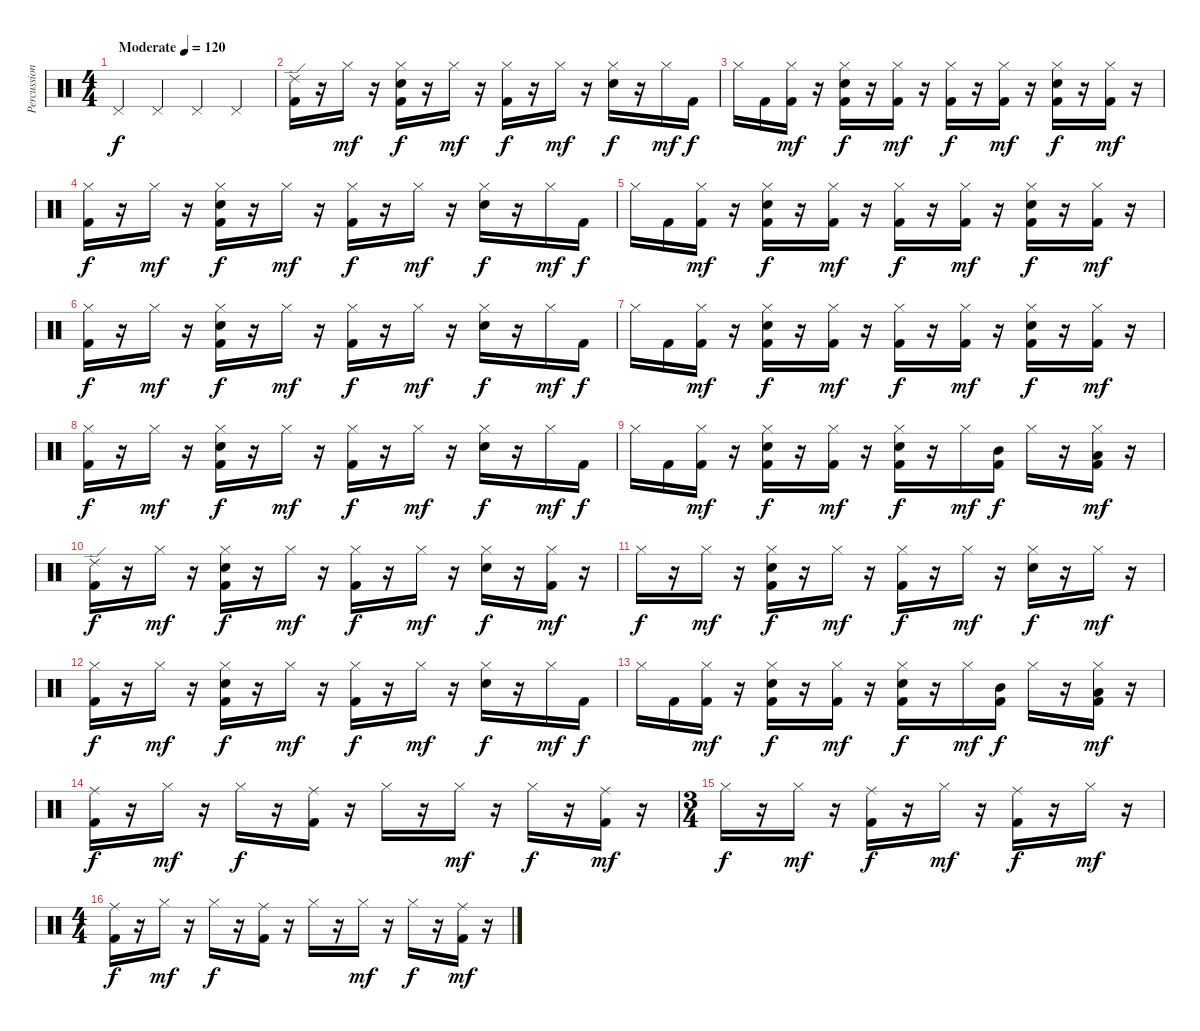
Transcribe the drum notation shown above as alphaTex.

\track ("Percussion" "Percussion") {instrument percussion}
\staff {score}
\articulation defaults
\ts (4 4)
\tempo (120 "Moderate")
\clef neutral
\ks c "Pedal Hi-Hat (hit)".4{dy f} "Pedal Hi-Hat (hit)".4 "Pedal Hi-Hat (hit)".4 "Pedal Hi-Hat (hit)".4
|
("Ride (edge) 2" "Kick (hit) 2").16 r.16 "Hi-Hat (closed)".16{dy mf} r.16 ("Hi-Hat (closed)" "Electric Snare (hit)" "Kick (hit) 2").16{dy f} r.16 "Hi-Hat (closed)".16{dy mf} r.16 ("Hi-Hat (closed)" "Kick (hit) 2").16{dy f} r.16 "Hi-Hat (closed)".16{dy mf} r.16 ("Hi-Hat (closed)" "Electric Snare (hit)").16{dy f} r.16 "Hi-Hat (closed)".16{dy mf} "Kick (hit) 2".16{dy f} |
"Hi-Hat (closed)".16 "Kick (hit) 2".16 ("Hi-Hat (closed)" "Kick (hit) 2").16{dy mf} r.16 ("Hi-Hat (closed)" "Electric Snare (hit)" "Kick (hit) 2").16{dy f} r.16 ("Hi-Hat (closed)" "Kick (hit) 2").16{dy mf} r.16 ("Hi-Hat (closed)" "Kick (hit) 2").16{dy f} r.16 ("Hi-Hat (closed)" "Kick (hit) 2").16{dy mf} r.16 ("Hi-Hat (closed)" "Electric Snare (hit)" "Kick (hit) 2").16{dy f} r.16 ("Hi-Hat (closed)" "Kick (hit) 2").16{dy mf} r.16 |
("Hi-Hat (closed)" "Kick (hit) 2").16{dy f} r.16 "Hi-Hat (closed)".16{dy mf} r.16 ("Hi-Hat (closed)" "Electric Snare (hit)" "Kick (hit) 2").16{dy f} r.16 "Hi-Hat (closed)".16{dy mf} r.16 ("Hi-Hat (closed)" "Kick (hit) 2").16{dy f} r.16 "Hi-Hat (closed)".16{dy mf} r.16 ("Hi-Hat (closed)" "Electric Snare (hit)").16{dy f} r.16 "Hi-Hat (closed)".16{dy mf} "Kick (hit) 2".16{dy f} |
"Hi-Hat (closed)".16 "Kick (hit) 2".16 ("Hi-Hat (closed)" "Kick (hit) 2").16{dy mf} r.16 ("Hi-Hat (closed)" "Electric Snare (hit)" "Kick (hit) 2").16{dy f} r.16 ("Hi-Hat (closed)" "Kick (hit) 2").16{dy mf} r.16 ("Hi-Hat (closed)" "Kick (hit) 2").16{dy f} r.16 ("Hi-Hat (closed)" "Kick (hit) 2").16{dy mf} r.16 ("Hi-Hat (closed)" "Electric Snare (hit)" "Kick (hit) 2").16{dy f} r.16 ("Hi-Hat (closed)" "Kick (hit) 2").16{dy mf} r.16 |
("Hi-Hat (closed)" "Kick (hit) 2").16{dy f} r.16 "Hi-Hat (closed)".16{dy mf} r.16 ("Hi-Hat (closed)" "Electric Snare (hit)" "Kick (hit) 2").16{dy f} r.16 "Hi-Hat (closed)".16{dy mf} r.16 ("Hi-Hat (closed)" "Kick (hit) 2").16{dy f} r.16 "Hi-Hat (closed)".16{dy mf} r.16 ("Hi-Hat (closed)" "Electric Snare (hit)").16{dy f} r.16 "Hi-Hat (closed)".16{dy mf} "Kick (hit) 2".16{dy f} |
"Hi-Hat (closed)".16 "Kick (hit) 2".16 ("Hi-Hat (closed)" "Kick (hit) 2").16{dy mf} r.16 ("Hi-Hat (closed)" "Electric Snare (hit)" "Kick (hit) 2").16{dy f} r.16 ("Hi-Hat (closed)" "Kick (hit) 2").16{dy mf} r.16 ("Hi-Hat (closed)" "Kick (hit) 2").16{dy f} r.16 ("Hi-Hat (closed)" "Kick (hit) 2").16{dy mf} r.16 ("Hi-Hat (closed)" "Electric Snare (hit)" "Kick (hit) 2").16{dy f} r.16 ("Hi-Hat (closed)" "Kick (hit) 2").16{dy mf} r.16 |
("Hi-Hat (closed)" "Kick (hit) 2").16{dy f} r.16 "Hi-Hat (closed)".16{dy mf} r.16 ("Hi-Hat (closed)" "Electric Snare (hit)" "Kick (hit) 2").16{dy f} r.16 "Hi-Hat (closed)".16{dy mf} r.16 ("Hi-Hat (closed)" "Kick (hit) 2").16{dy f} r.16 "Hi-Hat (closed)".16{dy mf} r.16 ("Hi-Hat (closed)" "Electric Snare (hit)").16{dy f} r.16 "Hi-Hat (closed)".16{dy mf} "Kick (hit) 2".16{dy f} |
"Hi-Hat (closed)".16 "Kick (hit) 2".16 ("Hi-Hat (closed)" "Kick (hit) 2").16{dy mf} r.16 ("Hi-Hat (closed)" "Electric Snare (hit)" "Kick (hit) 2").16{dy f} r.16 ("Hi-Hat (closed)" "Kick (hit) 2").16{dy mf} r.16 ("Hi-Hat (closed)" "Electric Snare (hit)" "Kick (hit) 2").16{dy f} r.16 "Hi-Hat (closed)".16{dy mf} ("Mid Tom (hit)" "Kick (hit) 2").16{dy f} "Hi-Hat (closed)".16 r.16 ("Hi-Hat (closed)" "Low Tom (hit)" "Kick (hit) 2").16{dy mf} r.16 |
("Ride (edge) 2" "Kick (hit) 2").16{dy f} r.16 "Hi-Hat (closed)".16{dy mf} r.16 ("Hi-Hat (closed)" "Electric Snare (hit)" "Kick (hit) 2").16{dy f} r.16 "Hi-Hat (closed)".16{dy mf} r.16 ("Hi-Hat (closed)" "Kick (hit) 2").16{dy f} r.16 "Hi-Hat (closed)".16{dy mf} r.16 ("Hi-Hat (closed)" "Electric Snare (hit)").16{dy f} r.16 ("Hi-Hat (closed)" "Kick (hit) 2").16{dy mf} r.16 |
"Hi-Hat (closed)".16{dy f} r.16 "Hi-Hat (closed)".16{dy mf} r.16 ("Hi-Hat (closed)" "Electric Snare (hit)" "Kick (hit) 2").16{dy f} r.16 "Hi-Hat (closed)".16{dy mf} r.16 ("Hi-Hat (closed)" "Kick (hit) 2").16{dy f} r.16 "Hi-Hat (closed)".16{dy mf} r.16 ("Hi-Hat (closed)" "Electric Snare (hit)").16{dy f} r.16 "Hi-Hat (closed)".16{dy mf} r.16 |
("Hi-Hat (closed)" "Kick (hit) 2").16{dy f} r.16 "Hi-Hat (closed)".16{dy mf} r.16 ("Hi-Hat (closed)" "Electric Snare (hit)" "Kick (hit) 2").16{dy f} r.16 "Hi-Hat (closed)".16{dy mf} r.16 ("Hi-Hat (closed)" "Kick (hit) 2").16{dy f} r.16 "Hi-Hat (closed)".16{dy mf} r.16 ("Hi-Hat (closed)" "Electric Snare (hit)").16{dy f} r.16 "Hi-Hat (closed)".16{dy mf} "Kick (hit) 2".16{dy f} |
"Hi-Hat (closed)".16 "Kick (hit) 2".16 ("Hi-Hat (closed)" "Kick (hit) 2").16{dy mf} r.16 ("Hi-Hat (closed)" "Electric Snare (hit)" "Kick (hit) 2").16{dy f} r.16 ("Hi-Hat (closed)" "Kick (hit) 2").16{dy mf} r.16 ("Hi-Hat (closed)" "Electric Snare (hit)" "Kick (hit) 2").16{dy f} r.16 "Hi-Hat (closed)".16{dy mf} ("Mid Tom (hit)" "Kick (hit) 2").16{dy f} "Hi-Hat (closed)".16 r.16 ("Hi-Hat (closed)" "Low Tom (hit)" "Kick (hit) 2").16{dy mf} r.16 |
("Ride (middle)" "Kick (hit) 2").16{dy f} r.16 "Hi-Hat (closed)".16{dy mf} r.16 "Hi-Hat (closed)".16{dy f} r.16 ("Ride (middle)" "Kick (hit) 2").16 r.16 "Hi-Hat (closed)".16 r.16 "Hi-Hat (closed)".16{dy mf} r.16 "Hi-Hat (closed)".16{dy f} r.16 ("Ride (middle)" "Kick (hit) 2").16{dy mf} r.16 |
\ts (3 4)
"Hi-Hat (closed)".16{dy f} r.16 "Hi-Hat (closed)".16{dy mf} r.16 ("Ride (middle)" "Kick (hit) 2").16{dy f} r.16 "Hi-Hat (closed)".16{dy mf} r.16 ("Ride (middle)" "Kick (hit) 2").16{dy f} r.16 "Hi-Hat (closed)".16{dy mf} r.16 |
\ts (4 4)
("Ride (middle)" "Kick (hit) 2").16{dy f} r.16 "Hi-Hat (closed)".16{dy mf} r.16 "Hi-Hat (closed)".16{dy f} r.16 ("Ride (middle)" "Kick (hit) 2").16 r.16 "Hi-Hat (closed)".16 r.16 "Hi-Hat (closed)".16{dy mf} r.16 "Hi-Hat (closed)".16{dy f} r.16 ("Ride (middle)" "Kick (hit) 2").16{dy mf} r.16
